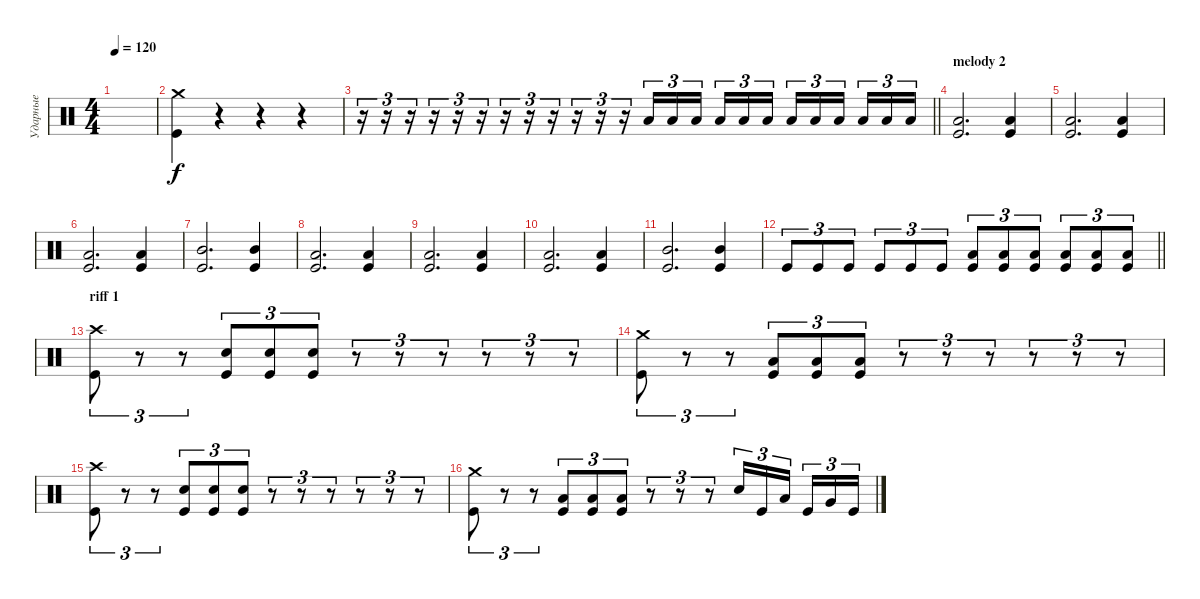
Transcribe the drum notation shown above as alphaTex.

\track ("Ударные" "Ударные") {instrument percussion}
\staff {score}
\articulation defaults
\ts (4 4)
\tempo 120
\clef neutral
\ks c
|
("Crash medium (hit)" "Kick (hit)").4 r.4 r.4 r.4 |
\barLineRight lightlight
r.16{tu (3 2)} r.16{tu (3 2)} r.16{tu (3 2)} r.16{tu (3 2)} r.16{tu (3 2)} r.16{tu (3 2)} r.16{tu (3 2)} r.16{tu (3 2)} r.16{tu (3 2)} r.16{tu (3 2)} r.16{tu (3 2)} r.16{tu (3 2)} "Low Floor Tom (hit)".16{tu (3 2)} "Low Floor Tom (hit)".16{tu (3 2)} "Low Floor Tom (hit)".16{tu (3 2) beam splitsecondary} "Low Floor Tom (hit)".16{tu (3 2)} "Low Floor Tom (hit)".16{tu (3 2)} "Low Floor Tom (hit)".16{tu (3 2)} "Low Floor Tom (hit)".16{tu (3 2)} "Low Floor Tom (hit)".16{tu (3 2)} "Low Floor Tom (hit)".16{tu (3 2) beam splitsecondary} "Low Floor Tom (hit)".16{tu (3 2)} "Low Floor Tom (hit)".16{tu (3 2)} "Low Floor Tom (hit)".16{tu (3 2)} |
\section ("" "melody 2")
("Low Tom (hit)" "Kick (hit)").2{d} ("Low Tom (hit)" "Kick (hit)").4 |
("Low Tom (hit)" "Kick (hit)").2{d} ("Low Tom (hit)" "Kick (hit)").4 |
("Low Tom (hit)" "Kick (hit)").2{d} ("Low Tom (hit)" "Kick (hit)").4 |
("Mid Tom (hit)" "Kick (hit)").2{d} ("Mid Tom (hit)" "Kick (hit)").4 |
("Low Tom (hit)" "Kick (hit)").2{d} ("Low Tom (hit)" "Kick (hit)").4 |
("Low Tom (hit)" "Kick (hit)").2{d} ("Kick (hit)" "Low Tom (hit)").4 |
("Low Tom (hit)" "Kick (hit)").2{d} ("Low Tom (hit)" "Kick (hit)").4 |
("Mid Tom (hit)" "Kick (hit)").2{d} ("Mid Tom (hit)" "Kick (hit)").4 |
\barLineRight lightlight "Kick (hit)".8{tu (3 2)} "Kick (hit)".8{tu (3 2)} "Kick (hit)".8{tu (3 2)} "Kick (hit)".8{tu (3 2)} "Kick (hit)".8{tu (3 2)} "Kick (hit)".8{tu (3 2)}
("Kick (hit)" "Low Floor Tom (hit)").8{tu (3 2)} ("Kick (hit)" "Low Floor Tom (hit)").8{tu (3 2)} ("Kick (hit)" "Low Floor Tom (hit)").8{tu (3 2)} ("Kick (hit)" "Low Floor Tom (hit)").8{tu (3 2)} ("Kick (hit)" "Low Floor Tom (hit)").8{tu (3 2)} ("Kick (hit)" "Low Floor Tom (hit)").8{tu (3 2)} |
\section ("" "riff 1")
("Crash high (hit)" "Kick (hit)").8{tu (3 2)} r.8{tu (3 2)} r.8{tu (3 2)} ("Electric Snare (hit)" "Kick (hit)").8{tu (3 2)} ("Electric Snare (hit)" "Kick (hit)").8{tu (3 2)} ("Electric Snare (hit)" "Kick (hit)").8{tu (3 2)} r.8{tu (3 2)} r.8{tu (3 2)} r.8{tu (3 2)} r.8{tu (3 2)} r.8{tu (3 2)} r.8{tu (3 2)} |
("Crash medium (hit)" "Kick (hit)").8{tu (3 2)} r.8{tu (3 2)} r.8{tu (3 2)} ("Low Floor Tom (hit)" "Kick (hit)").8{tu (3 2)} ("Low Floor Tom (hit)" "Kick (hit)").8{tu (3 2)} ("Low Floor Tom (hit)" "Kick (hit)").8{tu (3 2)} r.8{tu (3 2)} r.8{tu (3 2)} r.8{tu (3 2)} r.8{tu (3 2)} r.8{tu (3 2)} r.8{tu (3 2)} |
("Crash high (hit)" "Kick (hit)").8{tu (3 2)} r.8{tu (3 2)} r.8{tu (3 2)} ("Electric Snare (hit)" "Kick (hit)").8{tu (3 2)} ("Electric Snare (hit)" "Kick (hit)").8{tu (3 2)} ("Electric Snare (hit)" "Kick (hit)").8{tu (3 2)} r.8{tu (3 2)} r.8{tu (3 2)} r.8{tu (3 2)} r.8{tu (3 2)} r.8{tu (3 2)} r.8{tu (3 2)} |
("Crash medium (hit)" "Kick (hit)").8{tu (3 2)} r.8{tu (3 2)} r.8{tu (3 2)} ("Low Floor Tom (hit)" "Kick (hit)").8{tu (3 2)} ("Low Floor Tom (hit)" "Kick (hit)").8{tu (3 2)} ("Low Floor Tom (hit)" "Kick (hit)").8{tu (3 2)} r.8{tu (3 2)} r.8{tu (3 2)} r.8{tu (3 2)} "Electric Snare (hit)".16{tu (3 2)} "Kick (hit)".16{tu (3 2)} "Low Tom (hit)".16{tu (3 2) beam splitsecondary} "Kick (hit)".16{tu (3 2)} "Very Low Tom (hit)".16{tu (3 2)} "Kick (hit)".16{tu (3 2)}
